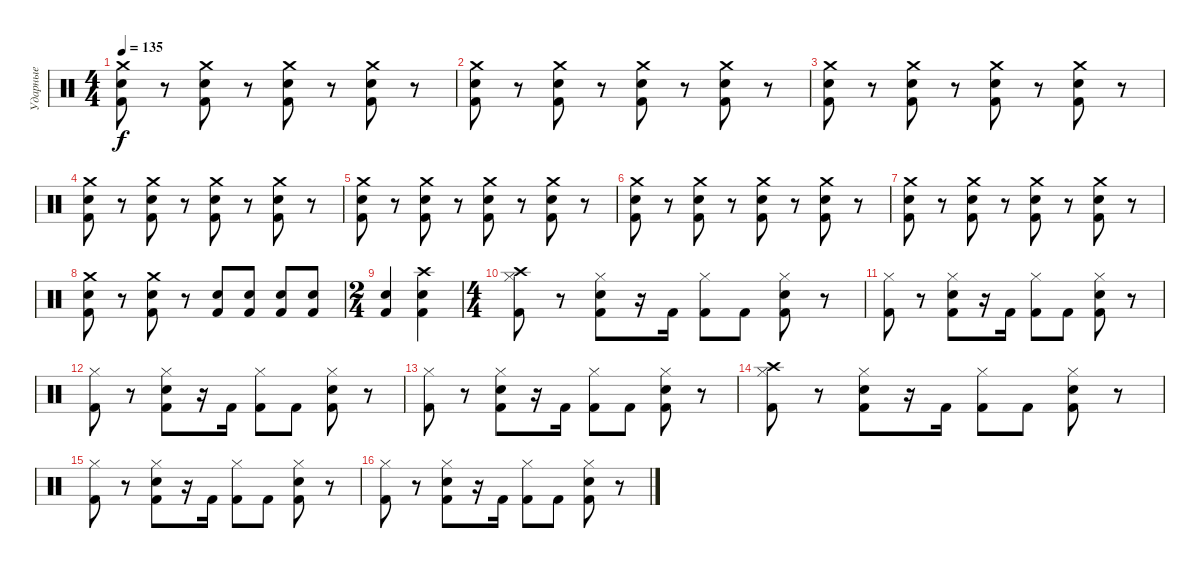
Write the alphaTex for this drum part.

\track ("Ударные" "Ударные") {instrument percussion}
\staff {score}
\articulation defaults
\ts (4 4)
\tempo 135
\clef neutral
\ks c
("Crash medium (hit)" "Electric Snare (hit)" "Kick (hit) 2").8{dy f} r.8 ("Crash medium (hit)" "Electric Snare (hit)" "Kick (hit) 2").8 r.8 ("Crash medium (hit)" "Electric Snare (hit)" "Kick (hit) 2").8 r.8 ("Crash medium (hit)" "Electric Snare (hit)" "Kick (hit) 2").8 r.8 |
("Crash medium (hit)" "Electric Snare (hit)" "Kick (hit) 2").8 r.8 ("Crash medium (hit)" "Electric Snare (hit)" "Kick (hit) 2").8 r.8 ("Crash medium (hit)" "Electric Snare (hit)" "Kick (hit) 2").8 r.8 ("Crash medium (hit)" "Electric Snare (hit)" "Kick (hit) 2").8 r.8 |
("Crash medium (hit)" "Electric Snare (hit)" "Kick (hit) 2").8 r.8 ("Crash medium (hit)" "Electric Snare (hit)" "Kick (hit) 2").8 r.8 ("Crash medium (hit)" "Electric Snare (hit)" "Kick (hit) 2").8 r.8 ("Crash medium (hit)" "Electric Snare (hit)" "Kick (hit) 2").8 r.8 |
("Crash medium (hit)" "Electric Snare (hit)" "Kick (hit) 2").8 r.8 ("Crash medium (hit)" "Electric Snare (hit)" "Kick (hit) 2").8 r.8 ("Crash medium (hit)" "Electric Snare (hit)" "Kick (hit) 2").8 r.8 ("Crash medium (hit)" "Electric Snare (hit)" "Kick (hit) 2").8 r.8 |
("Crash medium (hit)" "Electric Snare (hit)" "Kick (hit) 2").8 r.8 ("Crash medium (hit)" "Electric Snare (hit)" "Kick (hit) 2").8 r.8 ("Crash medium (hit)" "Electric Snare (hit)" "Kick (hit) 2").8 r.8 ("Crash medium (hit)" "Electric Snare (hit)" "Kick (hit) 2").8 r.8 |
("Crash medium (hit)" "Electric Snare (hit)" "Kick (hit) 2").8 r.8 ("Crash medium (hit)" "Electric Snare (hit)" "Kick (hit) 2").8 r.8 ("Crash medium (hit)" "Electric Snare (hit)" "Kick (hit) 2").8 r.8 ("Crash medium (hit)" "Electric Snare (hit)" "Kick (hit) 2").8 r.8 |
("Crash medium (hit)" "Electric Snare (hit)" "Kick (hit) 2").8 r.8 ("Crash medium (hit)" "Electric Snare (hit)" "Kick (hit) 2").8 r.8 ("Crash medium (hit)" "Electric Snare (hit)" "Kick (hit) 2").8 r.8 ("Crash medium (hit)" "Electric Snare (hit)" "Kick (hit) 2").8 r.8 |
("Crash medium (hit)" "Electric Snare (hit)" "Kick (hit) 2").8 r.8 ("Crash medium (hit)" "Electric Snare (hit)" "Kick (hit) 2").8 r.8 ("Electric Snare (hit)" "Kick (hit) 2").8 ("Electric Snare (hit)" "Kick (hit) 2").8 ("Electric Snare (hit)" "Kick (hit) 2").8 ("Electric Snare (hit)" "Kick (hit) 2").8 |
\ts (2 4)
("Electric Snare (hit)" "Kick (hit) 2").4 ("Crash high (hit)" "Electric Snare (hit)" "Kick (hit) 2").4 |
\ts (4 4)
("Hi-Hat (closed)" "Crash high (hit)" "Kick (hit) 2").8 r.8 ("Hi-Hat (closed)" "Electric Snare (hit)" "Kick (hit) 2").8 r.16 "Kick (hit) 2".16 ("Hi-Hat (closed)" "Kick (hit) 2").8 "Kick (hit) 2".8 ("Hi-Hat (closed)" "Electric Snare (hit)" "Kick (hit) 2").8 r.8 |
("Hi-Hat (closed)" "Kick (hit) 2").8 r.8 ("Hi-Hat (closed)" "Electric Snare (hit)" "Kick (hit) 2").8 r.16 "Kick (hit) 2".16 ("Hi-Hat (closed)" "Kick (hit) 2").8 "Kick (hit) 2".8 ("Hi-Hat (closed)" "Electric Snare (hit)" "Kick (hit) 2").8 r.8 |
("Hi-Hat (closed)" "Kick (hit) 2").8 r.8 ("Hi-Hat (closed)" "Electric Snare (hit)" "Kick (hit) 2").8 r.16 "Kick (hit) 2".16 ("Hi-Hat (closed)" "Kick (hit) 2").8 "Kick (hit) 2".8 ("Hi-Hat (closed)" "Electric Snare (hit)" "Kick (hit) 2").8 r.8 |
("Hi-Hat (closed)" "Kick (hit) 2").8 r.8 ("Hi-Hat (closed)" "Electric Snare (hit)" "Kick (hit) 2").8 r.16 "Kick (hit) 2".16 ("Hi-Hat (closed)" "Kick (hit) 2").8 "Kick (hit) 2".8 ("Hi-Hat (closed)" "Electric Snare (hit)" "Kick (hit) 2").8 r.8 |
("Hi-Hat (closed)" "Crash high (hit)" "Kick (hit) 2").8 r.8 ("Hi-Hat (closed)" "Electric Snare (hit)" "Kick (hit) 2").8 r.16 "Kick (hit) 2".16 ("Hi-Hat (closed)" "Kick (hit) 2").8 "Kick (hit) 2".8 ("Hi-Hat (closed)" "Electric Snare (hit)" "Kick (hit) 2").8 r.8 |
("Hi-Hat (closed)" "Kick (hit) 2").8 r.8 ("Hi-Hat (closed)" "Electric Snare (hit)" "Kick (hit) 2").8 r.16 "Kick (hit) 2".16 ("Hi-Hat (closed)" "Kick (hit) 2").8 "Kick (hit) 2".8 ("Hi-Hat (closed)" "Electric Snare (hit)" "Kick (hit) 2").8 r.8 |
("Hi-Hat (closed)" "Kick (hit) 2").8 r.8 ("Hi-Hat (closed)" "Electric Snare (hit)" "Kick (hit) 2").8 r.16 "Kick (hit) 2".16 ("Hi-Hat (closed)" "Kick (hit) 2").8 "Kick (hit) 2".8 ("Hi-Hat (closed)" "Electric Snare (hit)" "Kick (hit) 2").8 r.8
